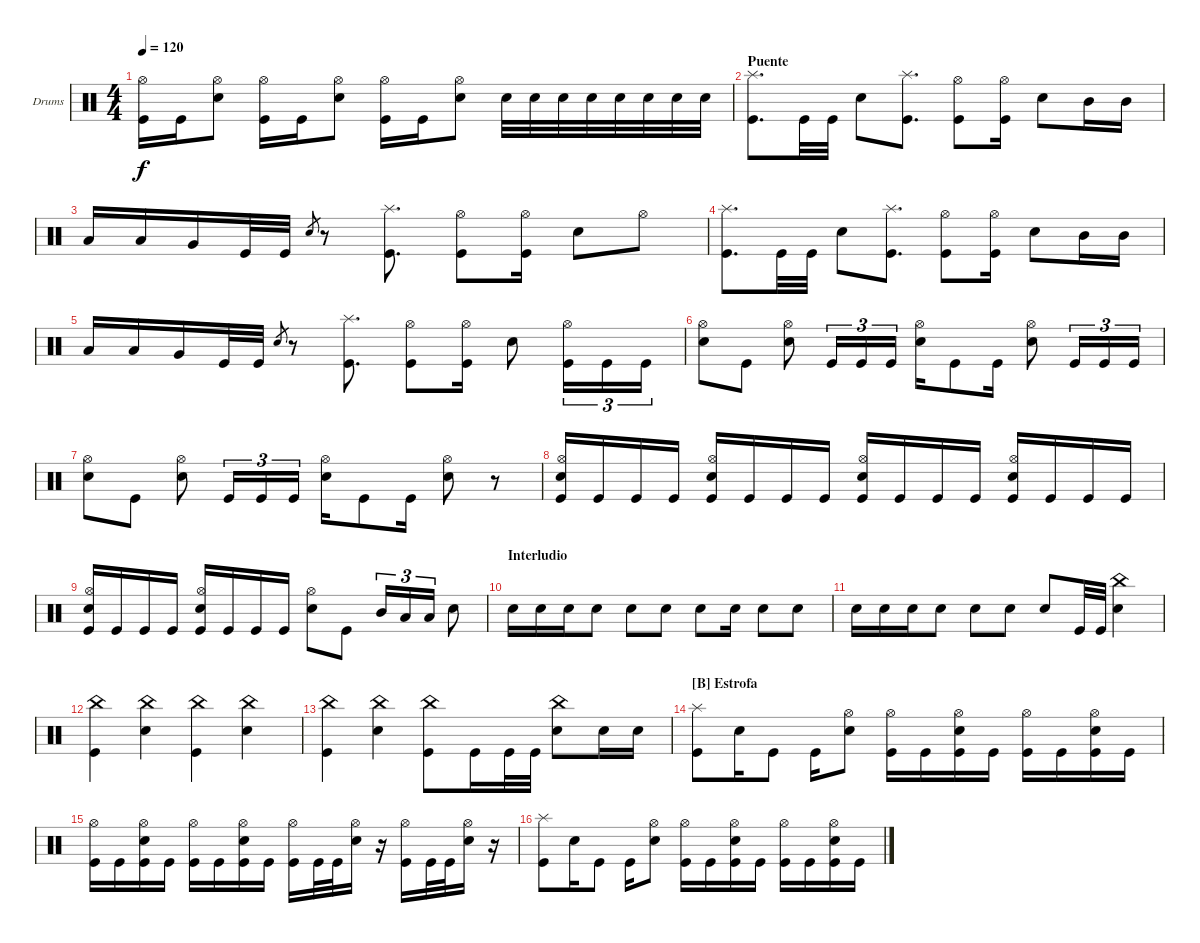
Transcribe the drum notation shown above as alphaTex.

\bracketExtendMode groupsimilarinstruments
\firstSystemTrackNameOrientation horizontal
\otherSystemsTrackNameOrientation horizontal
\track ("Drumkit" "Drums") {instrument percussion}
\staff {score}
\articulation defaults
\ts (4 4)
\tempo 120
\clef neutral
\ks c
("Kick (hit)" "Hi-Hat (open)").16{dy f} "Kick (hit)".16 ("Snare (hit) 2" "Hi-Hat (open)").8 ("Kick (hit)" "Hi-Hat (open)").16 "Kick (hit)".16 ("Snare (hit) 2" "Hi-Hat (open)").8 ("Kick (hit)" "Hi-Hat (open)").16 "Kick (hit)".16 ("Snare (hit) 2" "Hi-Hat (open)").8 "Snare (hit) 2".32 "Snare (hit) 2".32 "Snare (hit) 2".32 "Snare (hit) 2".32 "Snare (hit) 2".32 "Snare (hit) 2".32 "Snare (hit) 2".32 "Snare (hit) 2".32 |
\section ("" "Puente")
("Kick (hit)" "Splash (hit)").8{d} "Kick (hit)".32 "Kick (hit)".32 "Snare (hit) 2".8 ("Kick (hit)" "Splash (hit)").8{d} ("Kick (hit)" "Hi-Hat (open)").8 ("Kick (hit)" "Hi-Hat (open)").16 "Snare (hit) 2".8 "Mid Tom (hit)".16 "Mid Tom (hit)".16 |
"Low Tom (hit)".16 "Low Tom (hit)".16 "Very Low Tom (hit)".16 "Kick (hit)".32 "Kick (hit)".32 "Snare (hit) 2".8{gr} r.8 ("Kick (hit)" "Splash (hit)").8{d} ("Kick (hit)" "Hi-Hat (open)").8 ("Kick (hit)" "Hi-Hat (open)").16 "Snare (hit) 2".8 "Hi-Hat (open)".8 |
("Kick (hit)" "Splash (hit)").8{d} "Kick (hit)".32 "Kick (hit)".32 "Snare (hit) 2".8 ("Kick (hit)" "Splash (hit)").8{d} ("Kick (hit)" "Hi-Hat (open)").8 ("Kick (hit)" "Hi-Hat (open)").16 "Snare (hit) 2".8 "Mid Tom (hit)".16 "Mid Tom (hit)".16 |
"Low Tom (hit)".16 "Low Tom (hit)".16 "Very Low Tom (hit)".16 "Kick (hit)".32 "Kick (hit)".32 "Snare (hit) 2".8{gr} r.8 ("Kick (hit)" "Splash (hit)").8{d} ("Kick (hit)" "Hi-Hat (open)").8 ("Kick (hit)" "Hi-Hat (open)").16 "Snare (hit) 2".8 ("Hi-Hat (open)" "Kick (hit)").16{tu (3 2)} "Kick (hit)".16{tu (3 2)} "Kick (hit)".16{tu (3 2)} |
("Snare (hit) 2" "Hi-Hat (open)").8 "Kick (hit)".8 ("Snare (hit) 2" "Hi-Hat (open)").8 "Kick (hit)".16{tu (3 2)} "Kick (hit)".16{tu (3 2)} "Kick (hit)".16{tu (3 2)} ("Snare (hit) 2" "Hi-Hat (open)").16 "Kick (hit)".8 "Kick (hit)".16 ("Snare (hit) 2" "Hi-Hat (open)").8 "Kick (hit)".16{tu (3 2)} "Kick (hit)".16{tu (3 2)} "Kick (hit)".16{tu (3 2)} |
("Snare (hit) 2" "Hi-Hat (open)").8 "Kick (hit)".8 ("Snare (hit) 2" "Hi-Hat (open)").8 "Kick (hit)".16{tu (3 2)} "Kick (hit)".16{tu (3 2)} "Kick (hit)".16{tu (3 2)} ("Snare (hit) 2" "Hi-Hat (open)").16 "Kick (hit)".8 "Kick (hit)".16 ("Snare (hit) 2" "Hi-Hat (open)").8 r.8 |
("Kick (hit)" "Snare (hit) 2" "Hi-Hat (open)").16 "Kick (hit)".16 "Kick (hit)".16 "Kick (hit)".16 ("Kick (hit)" "Snare (hit) 2" "Hi-Hat (open)").16 "Kick (hit)".16 "Kick (hit)".16 "Kick (hit)".16 ("Kick (hit)" "Snare (hit) 2" "Hi-Hat (open)").16 "Kick (hit)".16 "Kick (hit)".16 "Kick (hit)".16 ("Kick (hit)" "Snare (hit) 2" "Hi-Hat (open)").16 "Kick (hit)".16 "Kick (hit)".16 "Kick (hit)".16 |
("Kick (hit)" "Snare (hit) 2" "Hi-Hat (open)").16 "Kick (hit)".16 "Kick (hit)".16 "Kick (hit)".16 ("Kick (hit)" "Snare (hit) 2" "Hi-Hat (open)").16 "Kick (hit)".16 "Kick (hit)".16 "Kick (hit)".16 ("Snare (hit) 2" "Hi-Hat (open)").8 "Kick (hit)".8 "Mid Tom (hit)".16{tu (3 2)} "Low Tom (hit)".16{tu (3 2)} "Low Tom (hit)".16{tu (3 2)} "Snare (hit) 2".8 |
\section ("" "Interludio")
"Snare (hit) 2".16 "Snare (hit) 2".16 "Snare (hit) 2".16 "Snare (hit) 2".8 "Snare (hit) 2".8 "Snare (hit) 2".8 "Snare (hit) 2".8 "Snare (hit) 2".16 "Snare (hit) 2".8 "Snare (hit) 2".8 |
"Snare (hit) 2".16 "Snare (hit) 2".16 "Snare (hit) 2".16 "Snare (hit) 2".8 "Snare (hit) 2".8 "Snare (hit) 2".8 "Snare (hit) 2".8 "Kick (hit)".32 "Kick (hit)".32 ("Snare (hit) 2" "China (hit)").4 |
("Kick (hit)" "China (hit)").4 ("Snare (hit) 2" "China (hit)").4 ("Kick (hit)" "China (hit)").4 ("Snare (hit) 2" "China (hit)").4 |
("Kick (hit)" "China (hit)").4 ("Snare (hit) 2" "China (hit)").4 ("Kick (hit)" "China (hit)").8 "Kick (hit)".16 "Kick (hit)".32 "Kick (hit)".32 ("Snare (hit) 2" "China (hit)").8 "Snare (hit) 2".16 "Snare (hit) 2".16 |
\section ("B" "Estrofa")
("Kick (hit)" "Splash (hit)").8 "Snare (hit) 2".16 "Kick (hit)".8 "Kick (hit)".16 ("Snare (hit) 2" "Hi-Hat (open)").8 ("Kick (hit)" "Hi-Hat (open)").16 "Kick (hit)".16 ("Kick (hit)" "Snare (hit) 2" "Hi-Hat (open)").16 "Kick (hit)".16 ("Kick (hit)" "Hi-Hat (open)").16 "Kick (hit)".16 ("Kick (hit)" "Snare (hit) 2" "Hi-Hat (open)").16 "Kick (hit)".16 |
("Kick (hit)" "Hi-Hat (open)").16 "Kick (hit)".16 ("Kick (hit)" "Snare (hit) 2" "Hi-Hat (open)").16 "Kick (hit)".16 ("Kick (hit)" "Hi-Hat (open)").16 "Kick (hit)".16 ("Kick (hit)" "Snare (hit) 2" "Hi-Hat (open)").16 "Kick (hit)".16 ("Kick (hit)" "Hi-Hat (open)").16 "Kick (hit)".32 "Kick (hit)".32 ("Snare (hit) 2" "Hi-Hat (open)").16 r.16 ("Kick (hit)" "Hi-Hat (open)").16 "Kick (hit)".32 "Kick (hit)".32 ("Snare (hit) 2" "Hi-Hat (open)").16 r.16 |
("Kick (hit)" "Splash (hit)").8 "Snare (hit) 2".16 "Kick (hit)".8 "Kick (hit)".16 ("Snare (hit) 2" "Hi-Hat (open)").8 ("Kick (hit)" "Hi-Hat (open)").16 "Kick (hit)".16 ("Kick (hit)" "Snare (hit) 2" "Hi-Hat (open)").16 "Kick (hit)".16 ("Kick (hit)" "Hi-Hat (open)").16 "Kick (hit)".16 ("Kick (hit)" "Snare (hit) 2" "Hi-Hat (open)").16 "Kick (hit)".16
